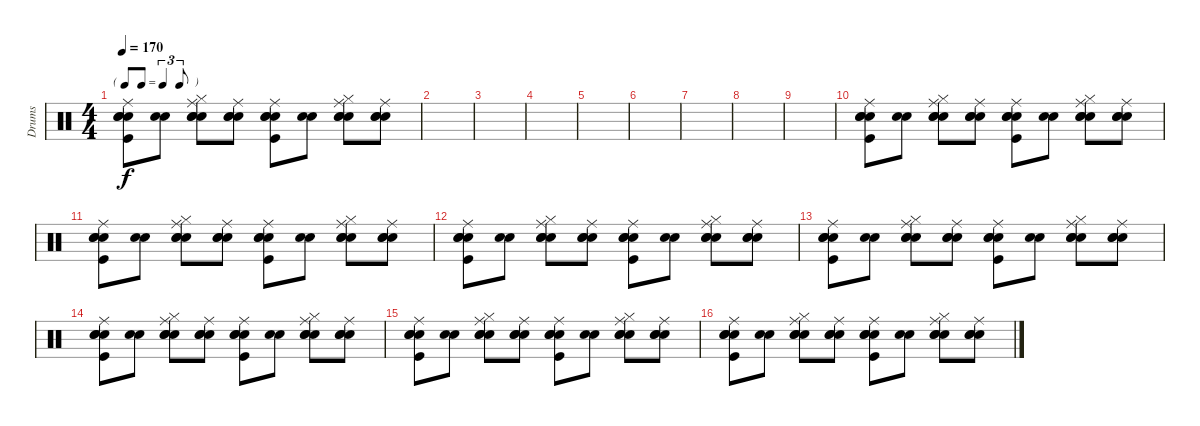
\track ("Drums" "Drums") {instrument percussion}
\staff {score}
\articulation defaults
\ts (4 4)
\tf triplet8th
\tempo 170
\clef neutral
\ks c
("Snare (hit)" "Kick (hit)" "Snare (hit) 2" "Electric Snare (hit)" "Ride (middle)").8{dy f} ("Snare (hit)" "Electric Snare (hit)").8 ("Snare (hit)" "Snare (hit) 2" "Hi-Hat (closed)" "Electric Snare (hit)" "Ride (middle)").8 ("Snare (hit)" "Snare (hit) 2" "Electric Snare (hit)" "Ride (middle)").8 ("Snare (hit)" "Kick (hit)" "Snare (hit) 2" "Electric Snare (hit)" "Ride (middle)").8 ("Snare (hit)" "Electric Snare (hit)").8 ("Snare (hit)" "Snare (hit) 2" "Hi-Hat (closed)" "Electric Snare (hit)" "Ride (middle)").8 ("Snare (hit)" "Snare (hit) 2" "Electric Snare (hit)" "Ride (middle)").8 |
|
|
|
|
|
|
|
|
("Snare (hit)" "Kick (hit)" "Snare (hit) 2" "Electric Snare (hit)" "Ride (middle)").8 ("Snare (hit)" "Electric Snare (hit)").8 ("Snare (hit)" "Snare (hit) 2" "Hi-Hat (closed)" "Electric Snare (hit)" "Ride (middle)").8 ("Snare (hit)" "Snare (hit) 2" "Electric Snare (hit)" "Ride (middle)").8 ("Snare (hit)" "Kick (hit)" "Snare (hit) 2" "Electric Snare (hit)" "Ride (middle)").8 ("Snare (hit)" "Electric Snare (hit)").8 ("Snare (hit)" "Snare (hit) 2" "Hi-Hat (closed)" "Electric Snare (hit)" "Ride (middle)").8 ("Snare (hit)" "Snare (hit) 2" "Electric Snare (hit)" "Ride (middle)").8 |
("Snare (hit)" "Kick (hit)" "Snare (hit) 2" "Electric Snare (hit)" "Ride (middle)").8 ("Snare (hit)" "Electric Snare (hit)").8 ("Snare (hit)" "Snare (hit) 2" "Hi-Hat (closed)" "Electric Snare (hit)" "Ride (middle)").8 ("Snare (hit)" "Snare (hit) 2" "Electric Snare (hit)" "Ride (middle)").8 ("Snare (hit)" "Kick (hit)" "Snare (hit) 2" "Electric Snare (hit)" "Ride (middle)").8 ("Snare (hit)" "Electric Snare (hit)").8 ("Snare (hit)" "Snare (hit) 2" "Hi-Hat (closed)" "Electric Snare (hit)" "Ride (middle)").8 ("Snare (hit)" "Snare (hit) 2" "Electric Snare (hit)" "Ride (middle)").8 |
("Snare (hit)" "Kick (hit)" "Snare (hit) 2" "Electric Snare (hit)" "Ride (middle)").8 ("Snare (hit)" "Electric Snare (hit)").8 ("Snare (hit)" "Snare (hit) 2" "Hi-Hat (closed)" "Electric Snare (hit)" "Ride (middle)").8 ("Snare (hit)" "Snare (hit) 2" "Electric Snare (hit)" "Ride (middle)").8 ("Snare (hit)" "Kick (hit)" "Snare (hit) 2" "Electric Snare (hit)" "Ride (middle)").8 ("Snare (hit)" "Electric Snare (hit)").8 ("Snare (hit)" "Snare (hit) 2" "Hi-Hat (closed)" "Electric Snare (hit)" "Ride (middle)").8 ("Snare (hit)" "Snare (hit) 2" "Electric Snare (hit)" "Ride (middle)").8 |
("Snare (hit)" "Kick (hit)" "Snare (hit) 2" "Electric Snare (hit)" "Ride (middle)").8 ("Snare (hit)" "Electric Snare (hit)").8 ("Snare (hit)" "Snare (hit) 2" "Hi-Hat (closed)" "Electric Snare (hit)" "Ride (middle)").8 ("Snare (hit)" "Snare (hit) 2" "Electric Snare (hit)" "Ride (middle)").8 ("Snare (hit)" "Kick (hit)" "Snare (hit) 2" "Electric Snare (hit)" "Ride (middle)").8 ("Snare (hit)" "Electric Snare (hit)").8 ("Snare (hit)" "Snare (hit) 2" "Hi-Hat (closed)" "Electric Snare (hit)" "Ride (middle)").8 ("Snare (hit)" "Snare (hit) 2" "Electric Snare (hit)" "Ride (middle)").8 |
("Snare (hit)" "Kick (hit)" "Snare (hit) 2" "Electric Snare (hit)" "Ride (middle)").8 ("Snare (hit)" "Electric Snare (hit)").8 ("Snare (hit)" "Snare (hit) 2" "Hi-Hat (closed)" "Electric Snare (hit)" "Ride (middle)").8 ("Snare (hit)" "Snare (hit) 2" "Electric Snare (hit)" "Ride (middle)").8 ("Snare (hit)" "Kick (hit)" "Snare (hit) 2" "Electric Snare (hit)" "Ride (middle)").8 ("Snare (hit)" "Electric Snare (hit)").8 ("Snare (hit)" "Snare (hit) 2" "Hi-Hat (closed)" "Electric Snare (hit)" "Ride (middle)").8 ("Snare (hit)" "Snare (hit) 2" "Electric Snare (hit)" "Ride (middle)").8 |
("Snare (hit)" "Kick (hit)" "Snare (hit) 2" "Electric Snare (hit)" "Ride (middle)").8 ("Snare (hit)" "Electric Snare (hit)").8 ("Snare (hit)" "Snare (hit) 2" "Hi-Hat (closed)" "Electric Snare (hit)" "Ride (middle)").8 ("Snare (hit)" "Snare (hit) 2" "Electric Snare (hit)" "Ride (middle)").8 ("Snare (hit)" "Kick (hit)" "Snare (hit) 2" "Electric Snare (hit)" "Ride (middle)").8 ("Snare (hit)" "Electric Snare (hit)").8 ("Snare (hit)" "Snare (hit) 2" "Hi-Hat (closed)" "Electric Snare (hit)" "Ride (middle)").8 ("Snare (hit)" "Snare (hit) 2" "Electric Snare (hit)" "Ride (middle)").8 |
("Snare (hit)" "Kick (hit)" "Snare (hit) 2" "Electric Snare (hit)" "Ride (middle)").8 ("Snare (hit)" "Electric Snare (hit)").8 ("Snare (hit)" "Snare (hit) 2" "Hi-Hat (closed)" "Electric Snare (hit)" "Ride (middle)").8 ("Snare (hit)" "Snare (hit) 2" "Electric Snare (hit)" "Ride (middle)").8 ("Snare (hit)" "Kick (hit)" "Snare (hit) 2" "Electric Snare (hit)" "Ride (middle)").8 ("Snare (hit)" "Electric Snare (hit)").8 ("Snare (hit)" "Snare (hit) 2" "Hi-Hat (closed)" "Electric Snare (hit)" "Ride (middle)").8 ("Snare (hit)" "Snare (hit) 2" "Electric Snare (hit)" "Ride (middle)").8
